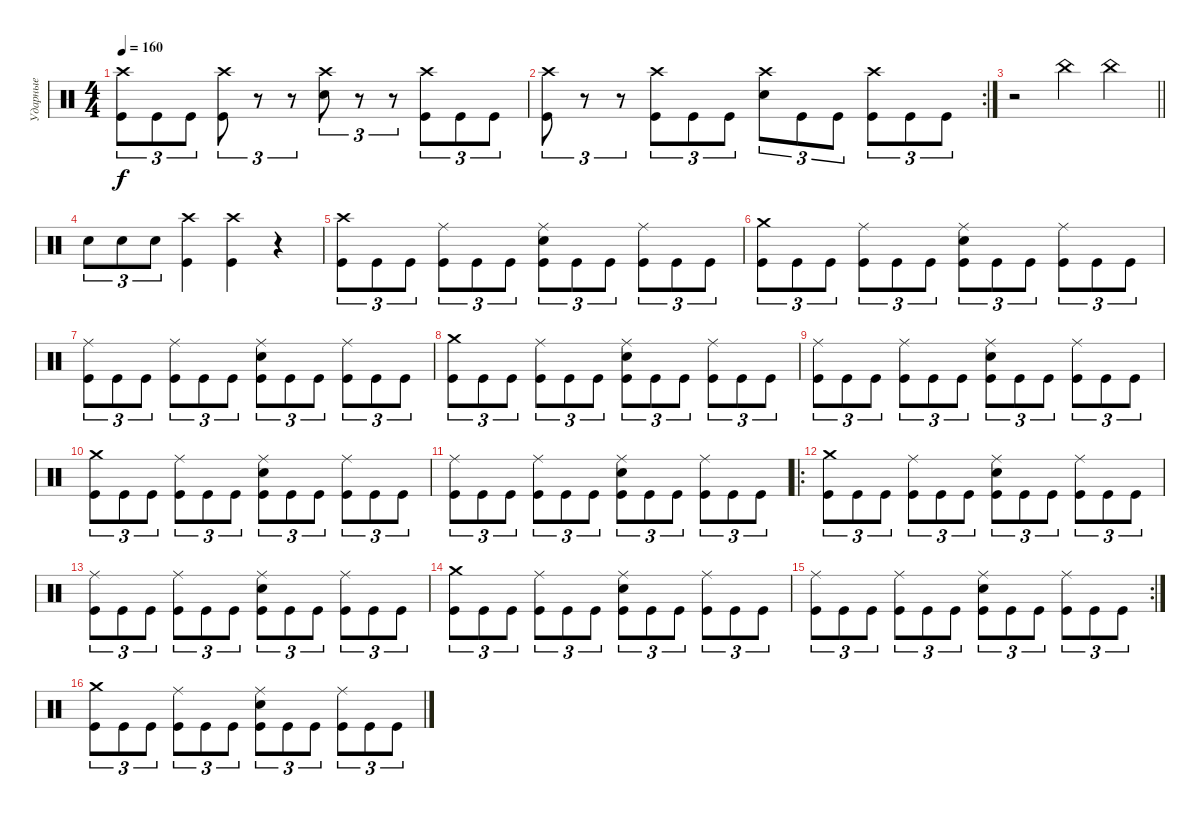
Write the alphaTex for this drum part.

\track ("Ударные" "Ударные") {instrument percussion}
\staff {score}
\articulation defaults
\ts (4 4)
\tempo 160
\clef neutral
\ks c
("Crash high (hit)" "Kick (hit)").8{tu (3 2) dy f} "Kick (hit)".8{tu (3 2)} "Kick (hit)".8{tu (3 2)} ("Crash high (hit)" "Kick (hit)").8{tu (3 2)} r.8{tu (3 2)} r.8{tu (3 2)} ("Crash high (hit)" "Snare (hit) 2").8{tu (3 2)} r.8{tu (3 2)} r.8{tu (3 2)} ("Crash high (hit)" "Kick (hit)").8{tu (3 2)} "Kick (hit)".8{tu (3 2)} "Kick (hit)".8{tu (3 2)} |
\rc 2
("Crash high (hit)" "Kick (hit)").8{tu (3 2)} r.8{tu (3 2)} r.8{tu (3 2)} ("Crash high (hit)" "Kick (hit)").8{tu (3 2)} "Kick (hit)".8{tu (3 2)} "Kick (hit)".8{tu (3 2)} ("Crash high (hit)" "Snare (hit) 2").8{tu (3 2)} "Kick (hit)".8{tu (3 2)} "Kick (hit)".8{tu (3 2)} ("Crash high (hit)" "Kick (hit)").8{tu (3 2)} "Kick (hit)".8{tu (3 2)} "Kick (hit)".8{tu (3 2)} |
\barLineRight lightlight
r.2 "China (hit)".4 "China (hit)".4 |
"Snare (hit) 2".8{tu (3 2)} "Snare (hit) 2".8{tu (3 2)} "Snare (hit) 2".8{tu (3 2)} ("Crash high (hit)" "Kick (hit)").4 ("Crash high (hit)" "Kick (hit)").4 r.4 |
("Crash high (hit)" "Kick (hit)").8{tu (3 2)} "Kick (hit)".8{tu (3 2)} "Kick (hit)".8{tu (3 2)} ("Ride (middle)" "Kick (hit)").8{tu (3 2)} "Kick (hit)".8{tu (3 2)} "Kick (hit)".8{tu (3 2)} ("Snare (hit) 2" "Ride (middle)" "Kick (hit)").8{tu (3 2)} "Kick (hit)".8{tu (3 2)} "Kick (hit)".8{tu (3 2)} ("Ride (middle)" "Kick (hit)").8{tu (3 2)} "Kick (hit)".8{tu (3 2)} "Kick (hit)".8{tu (3 2)} |
("Crash medium (hit)" "Kick (hit)").8{tu (3 2)} "Kick (hit)".8{tu (3 2)} "Kick (hit)".8{tu (3 2)} ("Ride (middle)" "Kick (hit)").8{tu (3 2)} "Kick (hit)".8{tu (3 2)} "Kick (hit)".8{tu (3 2)} ("Snare (hit) 2" "Ride (middle)" "Kick (hit)").8{tu (3 2)} "Kick (hit)".8{tu (3 2)} "Kick (hit)".8{tu (3 2)} ("Ride (middle)" "Kick (hit)").8{tu (3 2)} "Kick (hit)".8{tu (3 2)} "Kick (hit)".8{tu (3 2)} |
("Ride (middle)" "Kick (hit)").8{tu (3 2)} "Kick (hit)".8{tu (3 2)} "Kick (hit)".8{tu (3 2)} ("Ride (middle)" "Kick (hit)").8{tu (3 2)} "Kick (hit)".8{tu (3 2)} "Kick (hit)".8{tu (3 2)} ("Snare (hit) 2" "Ride (middle)" "Kick (hit)").8{tu (3 2)} "Kick (hit)".8{tu (3 2)} "Kick (hit)".8{tu (3 2)} ("Ride (middle)" "Kick (hit)").8{tu (3 2)} "Kick (hit)".8{tu (3 2)} "Kick (hit)".8{tu (3 2)} |
("Crash medium (hit)" "Kick (hit)").8{tu (3 2)} "Kick (hit)".8{tu (3 2)} "Kick (hit)".8{tu (3 2)} ("Ride (middle)" "Kick (hit)").8{tu (3 2)} "Kick (hit)".8{tu (3 2)} "Kick (hit)".8{tu (3 2)} ("Snare (hit) 2" "Ride (middle)" "Kick (hit)").8{tu (3 2)} "Kick (hit)".8{tu (3 2)} "Kick (hit)".8{tu (3 2)} ("Ride (middle)" "Kick (hit)").8{tu (3 2)} "Kick (hit)".8{tu (3 2)} "Kick (hit)".8{tu (3 2)} |
("Ride (middle)" "Kick (hit)").8{tu (3 2)} "Kick (hit)".8{tu (3 2)} "Kick (hit)".8{tu (3 2)} ("Ride (middle)" "Kick (hit)").8{tu (3 2)} "Kick (hit)".8{tu (3 2)} "Kick (hit)".8{tu (3 2)} ("Snare (hit) 2" "Ride (middle)" "Kick (hit)").8{tu (3 2)} "Kick (hit)".8{tu (3 2)} "Kick (hit)".8{tu (3 2)} ("Ride (middle)" "Kick (hit)").8{tu (3 2)} "Kick (hit)".8{tu (3 2)} "Kick (hit)".8{tu (3 2)} |
("Crash medium (hit)" "Kick (hit)").8{tu (3 2)} "Kick (hit)".8{tu (3 2)} "Kick (hit)".8{tu (3 2)} ("Ride (middle)" "Kick (hit)").8{tu (3 2)} "Kick (hit)".8{tu (3 2)} "Kick (hit)".8{tu (3 2)} ("Snare (hit) 2" "Ride (middle)" "Kick (hit)").8{tu (3 2)} "Kick (hit)".8{tu (3 2)} "Kick (hit)".8{tu (3 2)} ("Ride (middle)" "Kick (hit)").8{tu (3 2)} "Kick (hit)".8{tu (3 2)} "Kick (hit)".8{tu (3 2)} |
("Ride (middle)" "Kick (hit)").8{tu (3 2)} "Kick (hit)".8{tu (3 2)} "Kick (hit)".8{tu (3 2)} ("Ride (middle)" "Kick (hit)").8{tu (3 2)} "Kick (hit)".8{tu (3 2)} "Kick (hit)".8{tu (3 2)} ("Snare (hit) 2" "Ride (middle)" "Kick (hit)").8{tu (3 2)} "Kick (hit)".8{tu (3 2)} "Kick (hit)".8{tu (3 2)} ("Ride (middle)" "Kick (hit)").8{tu (3 2)} "Kick (hit)".8{tu (3 2)} "Kick (hit)".8{tu (3 2)} |
\ro
("Crash medium (hit)" "Kick (hit)").8{tu (3 2)} "Kick (hit)".8{tu (3 2)} "Kick (hit)".8{tu (3 2)} ("Ride (middle)" "Kick (hit)").8{tu (3 2)} "Kick (hit)".8{tu (3 2)} "Kick (hit)".8{tu (3 2)} ("Snare (hit) 2" "Ride (middle)" "Kick (hit)").8{tu (3 2)} "Kick (hit)".8{tu (3 2)} "Kick (hit)".8{tu (3 2)} ("Ride (middle)" "Kick (hit)").8{tu (3 2)} "Kick (hit)".8{tu (3 2)} "Kick (hit)".8{tu (3 2)} |
("Ride (middle)" "Kick (hit)").8{tu (3 2)} "Kick (hit)".8{tu (3 2)} "Kick (hit)".8{tu (3 2)} ("Ride (middle)" "Kick (hit)").8{tu (3 2)} "Kick (hit)".8{tu (3 2)} "Kick (hit)".8{tu (3 2)} ("Snare (hit) 2" "Ride (middle)" "Kick (hit)").8{tu (3 2)} "Kick (hit)".8{tu (3 2)} "Kick (hit)".8{tu (3 2)} ("Ride (middle)" "Kick (hit)").8{tu (3 2)} "Kick (hit)".8{tu (3 2)} "Kick (hit)".8{tu (3 2)} |
("Crash medium (hit)" "Kick (hit)").8{tu (3 2)} "Kick (hit)".8{tu (3 2)} "Kick (hit)".8{tu (3 2)} ("Ride (middle)" "Kick (hit)").8{tu (3 2)} "Kick (hit)".8{tu (3 2)} "Kick (hit)".8{tu (3 2)} ("Snare (hit) 2" "Ride (middle)" "Kick (hit)").8{tu (3 2)} "Kick (hit)".8{tu (3 2)} "Kick (hit)".8{tu (3 2)} ("Ride (middle)" "Kick (hit)").8{tu (3 2)} "Kick (hit)".8{tu (3 2)} "Kick (hit)".8{tu (3 2)} |
\rc 2
("Ride (middle)" "Kick (hit)").8{tu (3 2)} "Kick (hit)".8{tu (3 2)} "Kick (hit)".8{tu (3 2)} ("Ride (middle)" "Kick (hit)").8{tu (3 2)} "Kick (hit)".8{tu (3 2)} "Kick (hit)".8{tu (3 2)} ("Snare (hit) 2" "Ride (middle)" "Kick (hit)").8{tu (3 2)} "Kick (hit)".8{tu (3 2)} "Kick (hit)".8{tu (3 2)} ("Ride (middle)" "Kick (hit)").8{tu (3 2)} "Kick (hit)".8{tu (3 2)} "Kick (hit)".8{tu (3 2)} |
("Crash medium (hit)" "Kick (hit)").8{tu (3 2)} "Kick (hit)".8{tu (3 2)} "Kick (hit)".8{tu (3 2)} ("Ride (middle)" "Kick (hit)").8{tu (3 2)} "Kick (hit)".8{tu (3 2)} "Kick (hit)".8{tu (3 2)} ("Snare (hit) 2" "Ride (middle)" "Kick (hit)").8{tu (3 2)} "Kick (hit)".8{tu (3 2)} "Kick (hit)".8{tu (3 2)} ("Ride (middle)" "Kick (hit)").8{tu (3 2)} "Kick (hit)".8{tu (3 2)} "Kick (hit)".8{tu (3 2)}
